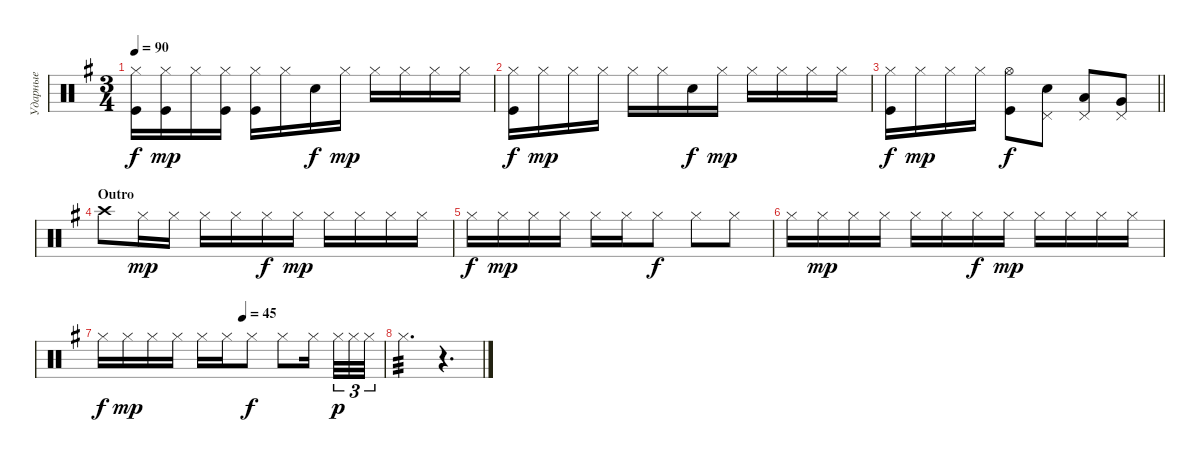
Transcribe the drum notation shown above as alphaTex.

\track ("Ударные" "Ударные") {instrument percussion}
\staff {score}
\articulation defaults
\ts (3 4)
\tempo 90
\clef neutral
\ks eminor
("Hi-Hat (closed)" "Kick (hit)").16{dy f} ("Hi-Hat (closed)" "Kick (hit)").16{dy mp} "Hi-Hat (closed)".16 ("Hi-Hat (closed)" "Kick (hit)").16 ("Hi-Hat (closed)" "Kick (hit)").16 "Hi-Hat (closed)".16 "Snare (hit) 2".16{dy f} "Hi-Hat (closed)".16{dy mp} "Hi-Hat (closed)".16 "Hi-Hat (closed)".16 "Hi-Hat (closed)".16 "Hi-Hat (closed)".16 |
("Hi-Hat (closed)" "Kick (hit)").16{dy f} "Hi-Hat (closed)".16{dy mp} "Hi-Hat (closed)".16 "Hi-Hat (closed)".16 "Hi-Hat (closed)".16 "Hi-Hat (closed)".16 "Snare (hit) 2".16{dy f} "Hi-Hat (closed)".16{dy mp} "Hi-Hat (closed)".16 "Hi-Hat (closed)".16 "Hi-Hat (closed)".16 "Hi-Hat (closed)".16 |
\barLineRight lightlight
("Hi-Hat (closed)" "Kick (hit)").16{dy f} "Hi-Hat (closed)".16{dy mp} "Hi-Hat (closed)".16 "Hi-Hat (closed)".16 ("Hi-Hat (open)" "Kick (hit)").8{dy f} ("Snare (hit) 2" "Pedal Hi-Hat (hit)").8 ("Pedal Hi-Hat (hit)" "Low Tom (hit)").8{bd 60} ("Pedal Hi-Hat (hit)" "Very Low Tom (hit)").8{bd 60} |
\section ("" "Outro")
"Crash high (hit)".8 "Hi-Hat (closed)".16{dy mp} "Hi-Hat (closed)".16 "Hi-Hat (closed)".16 "Hi-Hat (closed)".16 "Hi-Hat (closed)".16{dy f} "Hi-Hat (closed)".16{dy mp} "Hi-Hat (closed)".16 "Hi-Hat (closed)".16 "Hi-Hat (closed)".16 "Hi-Hat (closed)".16 |
"Hi-Hat (closed)".16{dy f} "Hi-Hat (closed)".16{dy mp} "Hi-Hat (closed)".16 "Hi-Hat (closed)".16 "Hi-Hat (closed)".16 "Hi-Hat (closed)".16 "Hi-Hat (closed)".8{dy f} "Hi-Hat (closed)".8 "Hi-Hat (closed)".8 |
"Hi-Hat (closed)".16 "Hi-Hat (closed)".16{dy mp} "Hi-Hat (closed)".16 "Hi-Hat (closed)".16 "Hi-Hat (closed)".16 "Hi-Hat (closed)".16 "Hi-Hat (closed)".16{dy f} "Hi-Hat (closed)".16{dy mp} "Hi-Hat (closed)".16 "Hi-Hat (closed)".16 "Hi-Hat (closed)".16 "Hi-Hat (closed)".16 |
\tempo (45 0.5)
"Hi-Hat (closed)".16{dy f} "Hi-Hat (closed)".16{dy mp} "Hi-Hat (closed)".16 "Hi-Hat (closed)".16 "Hi-Hat (closed)".16 "Hi-Hat (closed)".16 "Hi-Hat (closed)".8{dy f} "Hi-Hat (closed)".8 "Hi-Hat (closed)".16{beam splitsecondary} "Hi-Hat (closed)".32{tu (3 2) dy p} "Hi-Hat (closed)".32{tu (3 2)} "Hi-Hat (closed)".32{tu (3 2)} |
"Hi-Hat (closed)".4{d tp 3 volume 0} r.4{d}
